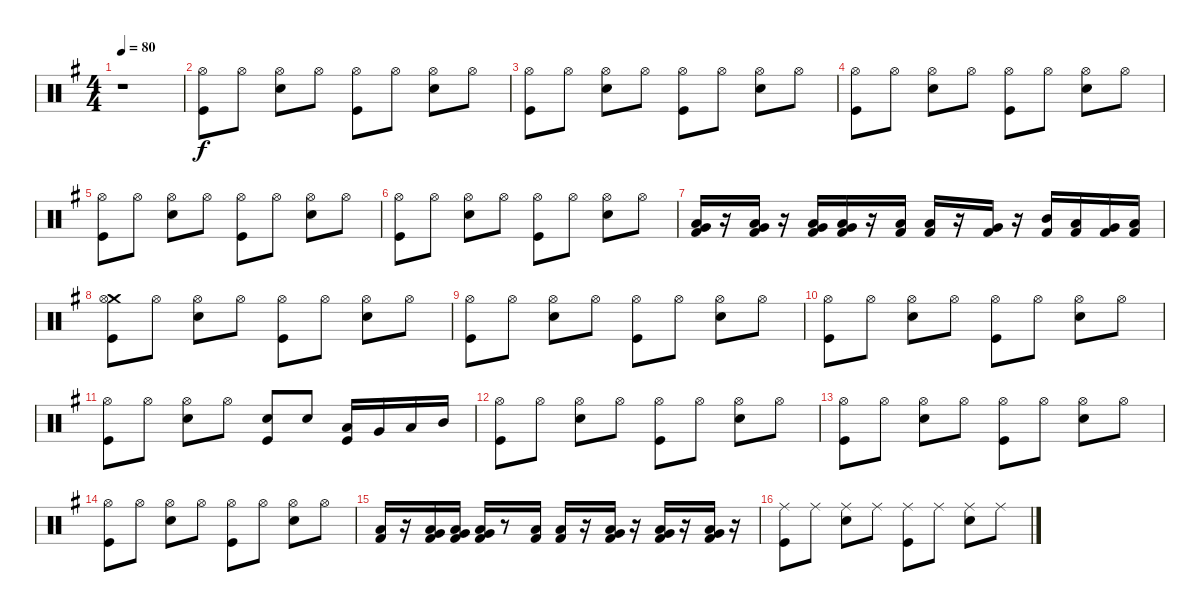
\track "" {instrument percussion}
\staff {score}
\articulation defaults
\ts (4 4)
\tempo 80
\clef neutral
\ks g
r.1{dy f} |
("Hi-Hat (open)" "Kick (hit)").8 "Hi-Hat (open)".8 ("Snare (hit) 2" "Hi-Hat (open)").8 "Hi-Hat (open)".8 ("Hi-Hat (open)" "Kick (hit)").8 "Hi-Hat (open)".8 ("Snare (hit) 2" "Hi-Hat (open)").8 "Hi-Hat (open)".8 |
("Hi-Hat (open)" "Kick (hit)").8 "Hi-Hat (open)".8 ("Snare (hit) 2" "Hi-Hat (open)").8 "Hi-Hat (open)".8 ("Hi-Hat (open)" "Kick (hit)").8 "Hi-Hat (open)".8 ("Snare (hit) 2" "Hi-Hat (open)").8 "Hi-Hat (open)".8 |
("Hi-Hat (open)" "Kick (hit)").8 "Hi-Hat (open)".8 ("Snare (hit) 2" "Hi-Hat (open)").8 "Hi-Hat (open)".8 ("Hi-Hat (open)" "Kick (hit)").8 "Hi-Hat (open)".8 ("Snare (hit) 2" "Hi-Hat (open)").8 "Hi-Hat (open)".8 |
("Hi-Hat (open)" "Kick (hit)").8 "Hi-Hat (open)".8 ("Snare (hit) 2" "Hi-Hat (open)").8 "Hi-Hat (open)".8 ("Hi-Hat (open)" "Kick (hit)").8 "Hi-Hat (open)".8 ("Snare (hit) 2" "Hi-Hat (open)").8 "Hi-Hat (open)".8 |
("Hi-Hat (open)" "Kick (hit)").8 "Hi-Hat (open)".8 ("Snare (hit) 2" "Hi-Hat (open)").8 "Hi-Hat (open)".8 ("Hi-Hat (open)" "Kick (hit)").8 "Hi-Hat (open)".8 ("Snare (hit) 2" "Hi-Hat (open)").8 "Hi-Hat (open)".8 |
("Very Low Tom (hit)" "Low Floor Tom (hit)" "Kick (hit) 2").16 r.16 ("Low Tom (hit)" "Very Low Tom (hit)" "Kick (hit) 2").16 r.16 ("Very Low Tom (hit)" "Low Tom (hit)" "Kick (hit) 2").16 ("Low Tom (hit)" "Very Low Tom (hit)" "Kick (hit) 2").16 r.16 ("Low Floor Tom (hit)" "Kick (hit) 2").16 ("Low Floor Tom (hit)" "Kick (hit) 2").16 r.16 ("Very Low Tom (hit)" "Kick (hit) 2").16 r.16 ("Mid Tom (hit)" "Kick (hit) 2").16 ("Low Tom (hit)" "Kick (hit) 2").16 ("Very Low Tom (hit)" "Kick (hit) 2").16 ("Low Floor Tom (hit)" "Kick (hit) 2").16 |
("Crash medium (hit)" "Hi-Hat (open)" "Kick (hit)").8 "Hi-Hat (open)".8 ("Snare (hit) 2" "Hi-Hat (open)").8 "Hi-Hat (open)".8 ("Hi-Hat (open)" "Kick (hit)").8 "Hi-Hat (open)".8 ("Snare (hit) 2" "Hi-Hat (open)").8 "Hi-Hat (open)".8 |
("Hi-Hat (open)" "Kick (hit)").8 "Hi-Hat (open)".8 ("Snare (hit) 2" "Hi-Hat (open)").8 "Hi-Hat (open)".8 ("Hi-Hat (open)" "Kick (hit)").8 "Hi-Hat (open)".8 ("Snare (hit) 2" "Hi-Hat (open)").8 "Hi-Hat (open)".8 |
("Hi-Hat (open)" "Kick (hit)").8 "Hi-Hat (open)".8 ("Snare (hit) 2" "Hi-Hat (open)").8 "Hi-Hat (open)".8 ("Hi-Hat (open)" "Kick (hit)").8 "Hi-Hat (open)".8 ("Snare (hit) 2" "Hi-Hat (open)").8 "Hi-Hat (open)".8 |
("Hi-Hat (open)" "Kick (hit)").8 "Hi-Hat (open)".8 ("Snare (hit) 2" "Hi-Hat (open)").8 "Hi-Hat (open)".8 ("Electric Snare (hit)" "Kick (hit)").8 "Electric Snare (hit)".8 ("Kick (hit)" "Low Floor Tom (hit)").16 "Very Low Tom (hit)".16 "Low Tom (hit)".16 "Mid Tom (hit)".16 |
("Hi-Hat (open)" "Kick (hit)").8 "Hi-Hat (open)".8 ("Snare (hit) 2" "Hi-Hat (open)").8 "Hi-Hat (open)".8 ("Hi-Hat (open)" "Kick (hit)").8 "Hi-Hat (open)".8 ("Snare (hit) 2" "Hi-Hat (open)").8 "Hi-Hat (open)".8 |
("Hi-Hat (open)" "Kick (hit)").8 "Hi-Hat (open)".8 ("Snare (hit) 2" "Hi-Hat (open)").8 "Hi-Hat (open)".8 ("Hi-Hat (open)" "Kick (hit)").8 "Hi-Hat (open)".8 ("Snare (hit) 2" "Hi-Hat (open)").8 "Hi-Hat (open)".8 |
("Hi-Hat (open)" "Kick (hit)").8 "Hi-Hat (open)".8 ("Snare (hit) 2" "Hi-Hat (open)").8 "Hi-Hat (open)".8 ("Hi-Hat (open)" "Kick (hit)").8 "Hi-Hat (open)".8 ("Snare (hit) 2" "Hi-Hat (open)").8 "Hi-Hat (open)".8 |
("Low Floor Tom (hit)" "Kick (hit) 2").16 r.16 ("Very Low Tom (hit)" "Low Floor Tom (hit)" "Kick (hit) 2").16 ("Very Low Tom (hit)" "Low Floor Tom (hit)" "Kick (hit) 2").16 ("Very Low Tom (hit)" "Low Floor Tom (hit)" "Kick (hit) 2").16 r.8 ("Low Floor Tom (hit)" "Kick (hit) 2").16 ("Low Floor Tom (hit)" "Kick (hit) 2").16 r.16 ("Very Low Tom (hit)" "Low Floor Tom (hit)" "Kick (hit) 2").16 r.16 ("Low Tom (hit)" "Very Low Tom (hit)" "Kick (hit) 2").16 r.16 ("Low Tom (hit)" "Very Low Tom (hit)" "Kick (hit) 2").16 r.16 |
("Ride (middle)" "Kick (hit)").8 "Ride (middle)".8 ("Ride (middle)" "Snare (hit) 2").8 "Ride (middle)".8 ("Ride (middle)" "Kick (hit)").8 "Ride (middle)".8 ("Ride (middle)" "Snare (hit) 2").8 "Ride (middle)".8
